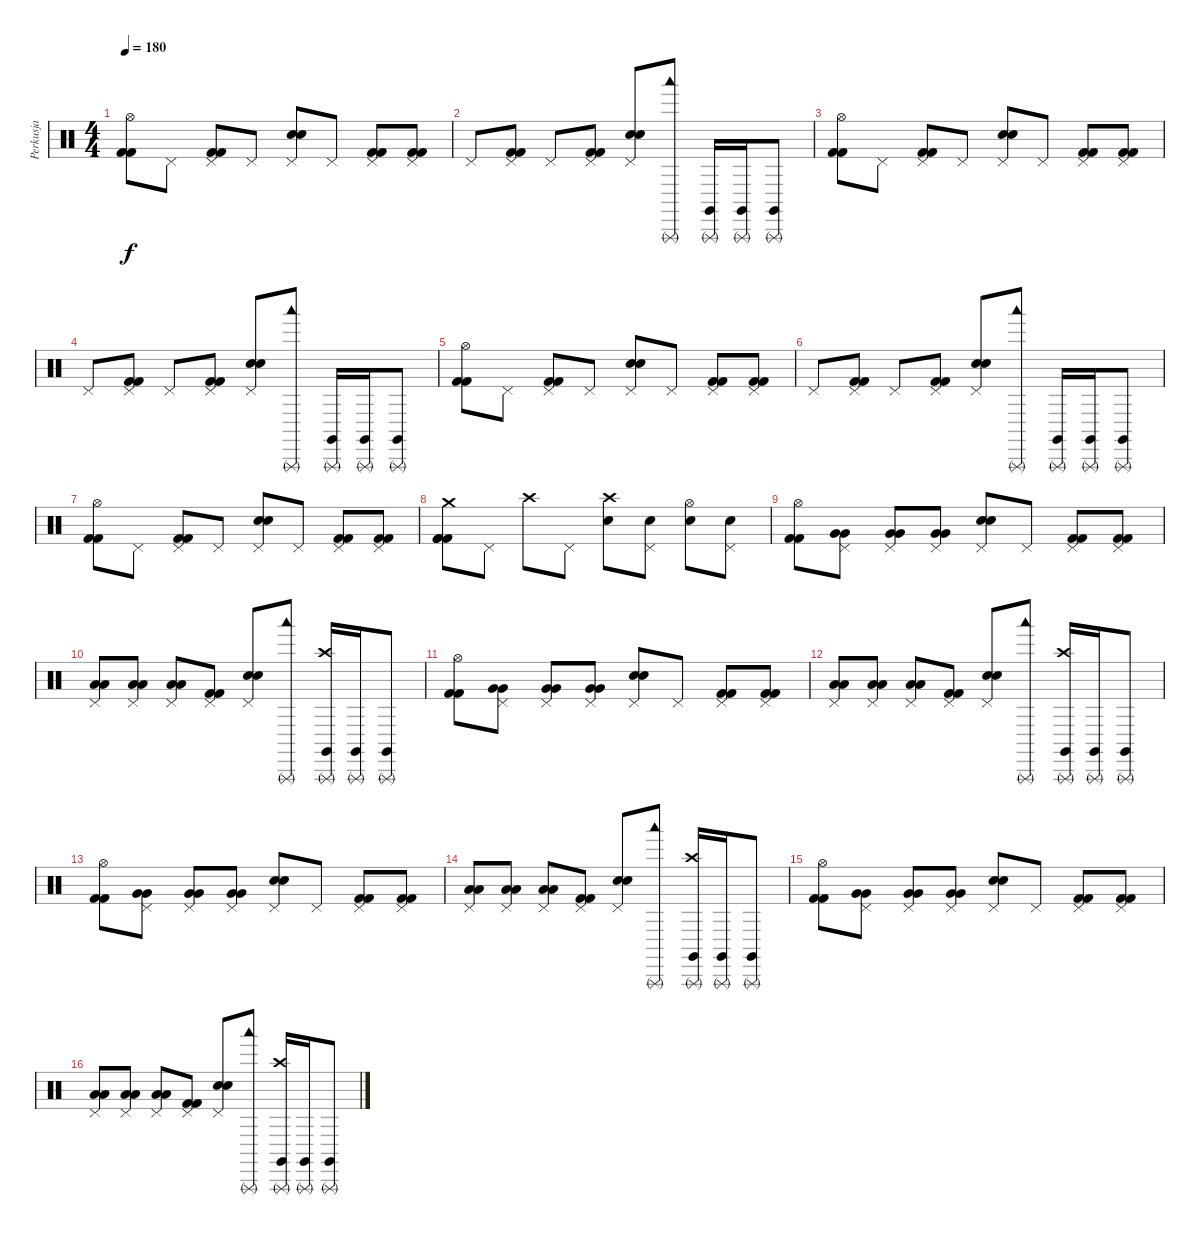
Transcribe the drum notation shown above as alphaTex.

\track ("Perkusja" "Perkusja") {instrument percussion}
\staff {score}
\articulation defaults
\ts (4 4)
\tempo 180
\clef neutral
\ks c
("Hi-Hat (open)" "Kick (hit) 2" "Kick (hit) 2").8{dy f} "Pedal Hi-Hat (hit)".8 ("Pedal Hi-Hat (hit)" "Kick (hit) 2" "Kick (hit) 2").8 "Pedal Hi-Hat (hit)".8 ("Pedal Hi-Hat (hit)" "Snare (hit) 2" "Snare (hit) 2").8 "Pedal Hi-Hat (hit)".8 ("Pedal Hi-Hat (hit)" "Kick (hit) 2" "Kick (hit) 2").8 ("Pedal Hi-Hat (hit)" "Kick (hit) 2" "Kick (hit) 2").8 |
"Pedal Hi-Hat (hit)".8 ("Pedal Hi-Hat (hit)" "Kick (hit) 2" "Kick (hit) 2").8 "Pedal Hi-Hat (hit)".8 ("Pedal Hi-Hat (hit)" "Kick (hit) 2" "Kick (hit) 2").8 ("Pedal Hi-Hat (hit)" "Snare (hit) 2" "Snare (hit) 2").8 ("Triangle (rnute)" "Woodblock low (hit)").8 ("Triangle (rnute)" "Claves (hit)").16 ("Triangle (rnute)" "Claves (hit)").16 ("Triangle (rnute)" "Claves (hit)").8 |
("Hi-Hat (open)" "Kick (hit) 2" "Kick (hit) 2").8 "Pedal Hi-Hat (hit)".8 ("Pedal Hi-Hat (hit)" "Kick (hit) 2" "Kick (hit) 2").8 "Pedal Hi-Hat (hit)".8 ("Pedal Hi-Hat (hit)" "Snare (hit) 2" "Snare (hit) 2").8 "Pedal Hi-Hat (hit)".8 ("Pedal Hi-Hat (hit)" "Kick (hit) 2" "Kick (hit) 2").8 ("Pedal Hi-Hat (hit)" "Kick (hit) 2" "Kick (hit) 2").8 |
"Pedal Hi-Hat (hit)".8 ("Pedal Hi-Hat (hit)" "Kick (hit) 2" "Kick (hit) 2").8 "Pedal Hi-Hat (hit)".8 ("Pedal Hi-Hat (hit)" "Kick (hit) 2" "Kick (hit) 2").8 ("Pedal Hi-Hat (hit)" "Snare (hit) 2" "Snare (hit) 2").8 ("Triangle (rnute)" "Woodblock low (hit)").8 ("Triangle (rnute)" "Claves (hit)").16 ("Triangle (rnute)" "Claves (hit)").16 ("Triangle (rnute)" "Claves (hit)").8 |
("Hi-Hat (open)" "Kick (hit) 2" "Kick (hit) 2").8 "Pedal Hi-Hat (hit)".8 ("Pedal Hi-Hat (hit)" "Kick (hit) 2" "Kick (hit) 2").8 "Pedal Hi-Hat (hit)".8 ("Pedal Hi-Hat (hit)" "Snare (hit) 2" "Snare (hit) 2").8 "Pedal Hi-Hat (hit)".8 ("Pedal Hi-Hat (hit)" "Kick (hit) 2" "Kick (hit) 2").8 ("Pedal Hi-Hat (hit)" "Kick (hit) 2" "Kick (hit) 2").8 |
"Pedal Hi-Hat (hit)".8 ("Pedal Hi-Hat (hit)" "Kick (hit) 2" "Kick (hit) 2").8 "Pedal Hi-Hat (hit)".8 ("Pedal Hi-Hat (hit)" "Kick (hit) 2" "Kick (hit) 2").8 ("Pedal Hi-Hat (hit)" "Snare (hit) 2" "Snare (hit) 2").8 ("Triangle (rnute)" "Woodblock low (hit)").8 ("Triangle (rnute)" "Claves (hit)").16 ("Triangle (rnute)" "Claves (hit)").16 ("Triangle (rnute)" "Claves (hit)").8 |
("Hi-Hat (open)" "Kick (hit) 2" "Kick (hit) 2").8 "Pedal Hi-Hat (hit)".8 ("Pedal Hi-Hat (hit)" "Kick (hit) 2" "Kick (hit) 2").8 "Pedal Hi-Hat (hit)".8 ("Pedal Hi-Hat (hit)" "Snare (hit) 2" "Snare (hit) 2").8 "Pedal Hi-Hat (hit)".8 ("Pedal Hi-Hat (hit)" "Kick (hit) 2" "Kick (hit) 2").8 ("Pedal Hi-Hat (hit)" "Kick (hit) 2" "Kick (hit) 2").8 |
("Crash medium (hit)" "Kick (hit) 2" "Kick (hit) 2" "Kick (hit) 2").8 "Pedal Hi-Hat (hit)".8 "Crash high (hit)".8 "Pedal Hi-Hat (hit)".8 ("Crash high (hit)" "Snare (hit) 2").8 ("Pedal Hi-Hat (hit)" "Snare (hit) 2").8 ("Hi-Hat (open)" "Snare (hit) 2").8 ("Pedal Hi-Hat (hit)" "Snare (hit) 2").8 |
("Hi-Hat (open)" "Kick (hit) 2" "Kick (hit) 2").8 ("Pedal Hi-Hat (hit)" "Very Low Tom (hit)" "Very Low Tom (hit)").8 ("Pedal Hi-Hat (hit)" "Very Low Tom (hit)" "Very Low Tom (hit)").8 ("Pedal Hi-Hat (hit)" "Very Low Tom (hit)" "Very Low Tom (hit)").8 ("Pedal Hi-Hat (hit)" "Snare (hit) 2" "Snare (hit) 2").8 "Pedal Hi-Hat (hit)".8 ("Pedal Hi-Hat (hit)" "Kick (hit) 2" "Kick (hit) 2").8 ("Pedal Hi-Hat (hit)" "Kick (hit) 2" "Kick (hit) 2").8 |
("Pedal Hi-Hat (hit)" "Low Tom (hit)" "Low Tom (hit)").8 ("Pedal Hi-Hat (hit)" "Low Tom (hit)" "Low Tom (hit)").8 ("Pedal Hi-Hat (hit)" "Low Tom (hit)" "Low Tom (hit)").8 ("Pedal Hi-Hat (hit)" "Kick (hit) 2" "Kick (hit) 2").8 ("Pedal Hi-Hat (hit)" "Snare (hit) 2" "Snare (hit) 2").8 ("Triangle (rnute)" "Woodblock low (hit)").8 ("Crash high (hit)" "Triangle (rnute)" "Claves (hit)").16 ("Triangle (rnute)" "Claves (hit)").16 ("Triangle (rnute)" "Claves (hit)").8 |
("Hi-Hat (open)" "Kick (hit) 2" "Kick (hit) 2").8 ("Pedal Hi-Hat (hit)" "Very Low Tom (hit)" "Very Low Tom (hit)").8 ("Pedal Hi-Hat (hit)" "Very Low Tom (hit)" "Very Low Tom (hit)").8 ("Pedal Hi-Hat (hit)" "Very Low Tom (hit)" "Very Low Tom (hit)").8 ("Pedal Hi-Hat (hit)" "Snare (hit) 2" "Snare (hit) 2").8 "Pedal Hi-Hat (hit)".8 ("Pedal Hi-Hat (hit)" "Kick (hit) 2" "Kick (hit) 2").8 ("Pedal Hi-Hat (hit)" "Kick (hit) 2" "Kick (hit) 2").8 |
("Pedal Hi-Hat (hit)" "Low Tom (hit)" "Low Tom (hit)").8 ("Pedal Hi-Hat (hit)" "Low Tom (hit)" "Low Tom (hit)").8 ("Pedal Hi-Hat (hit)" "Low Tom (hit)" "Low Tom (hit)").8 ("Pedal Hi-Hat (hit)" "Kick (hit) 2" "Kick (hit) 2").8 ("Pedal Hi-Hat (hit)" "Snare (hit) 2" "Snare (hit) 2").8 ("Triangle (rnute)" "Woodblock low (hit)").8 ("Crash high (hit)" "Triangle (rnute)" "Claves (hit)").16 ("Triangle (rnute)" "Claves (hit)").16 ("Triangle (rnute)" "Claves (hit)").8 |
("Hi-Hat (open)" "Kick (hit) 2" "Kick (hit) 2").8 ("Pedal Hi-Hat (hit)" "Very Low Tom (hit)" "Very Low Tom (hit)").8 ("Pedal Hi-Hat (hit)" "Very Low Tom (hit)" "Very Low Tom (hit)").8 ("Pedal Hi-Hat (hit)" "Very Low Tom (hit)" "Very Low Tom (hit)").8 ("Pedal Hi-Hat (hit)" "Snare (hit) 2" "Snare (hit) 2").8 "Pedal Hi-Hat (hit)".8 ("Pedal Hi-Hat (hit)" "Kick (hit) 2" "Kick (hit) 2").8 ("Pedal Hi-Hat (hit)" "Kick (hit) 2" "Kick (hit) 2").8 |
("Pedal Hi-Hat (hit)" "Low Tom (hit)" "Low Tom (hit)").8 ("Pedal Hi-Hat (hit)" "Low Tom (hit)" "Low Tom (hit)").8 ("Pedal Hi-Hat (hit)" "Low Tom (hit)" "Low Tom (hit)").8 ("Pedal Hi-Hat (hit)" "Kick (hit) 2" "Kick (hit) 2").8 ("Pedal Hi-Hat (hit)" "Snare (hit) 2" "Snare (hit) 2").8 ("Triangle (rnute)" "Woodblock low (hit)").8 ("Crash high (hit)" "Triangle (rnute)" "Claves (hit)").16 ("Triangle (rnute)" "Claves (hit)").16 ("Triangle (rnute)" "Claves (hit)").8 |
("Hi-Hat (open)" "Kick (hit) 2" "Kick (hit) 2").8 ("Pedal Hi-Hat (hit)" "Very Low Tom (hit)" "Very Low Tom (hit)").8 ("Pedal Hi-Hat (hit)" "Very Low Tom (hit)" "Very Low Tom (hit)").8 ("Pedal Hi-Hat (hit)" "Very Low Tom (hit)" "Very Low Tom (hit)").8 ("Pedal Hi-Hat (hit)" "Snare (hit) 2" "Snare (hit) 2").8 "Pedal Hi-Hat (hit)".8 ("Pedal Hi-Hat (hit)" "Kick (hit) 2" "Kick (hit) 2").8 ("Pedal Hi-Hat (hit)" "Kick (hit) 2" "Kick (hit) 2").8 |
("Pedal Hi-Hat (hit)" "Low Tom (hit)" "Low Tom (hit)").8 ("Pedal Hi-Hat (hit)" "Low Tom (hit)" "Low Tom (hit)").8 ("Pedal Hi-Hat (hit)" "Low Tom (hit)" "Low Tom (hit)").8 ("Pedal Hi-Hat (hit)" "Kick (hit) 2" "Kick (hit) 2").8 ("Pedal Hi-Hat (hit)" "Snare (hit) 2" "Snare (hit) 2").8 ("Triangle (rnute)" "Woodblock low (hit)").8 ("Crash high (hit)" "Triangle (rnute)" "Claves (hit)").16 ("Triangle (rnute)" "Claves (hit)").16 ("Triangle (rnute)" "Claves (hit)").8
